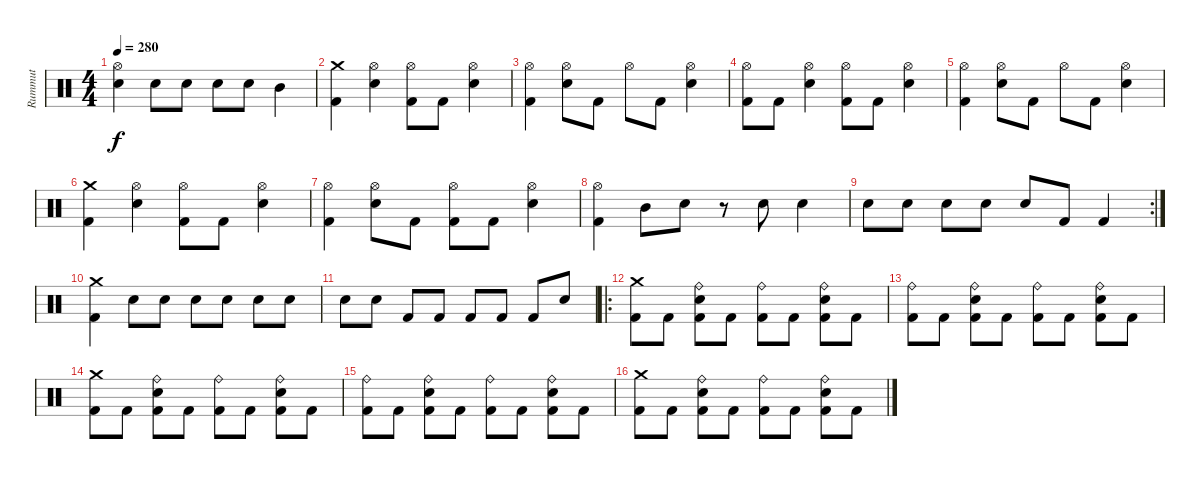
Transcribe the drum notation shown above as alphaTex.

\track ("Rummut" "Rummut") {instrument percussion}
\staff {score}
\articulation defaults
\ts (4 4)
\tempo 280
\clef neutral
\ks c
("Hi-Hat (open)" "Snare (hit) 2").4{dy f} "Snare (hit) 2".8 "Snare (hit) 2".8 "Snare (hit) 2".8 "Snare (hit) 2".8 "Mid Tom (hit)".4 |
("Crash medium (hit)" "Kick (hit) 2").4 ("Hi-Hat (open)" "Snare (hit) 2").4 ("Hi-Hat (open)" "Kick (hit) 2").8 "Kick (hit) 2".8 ("Hi-Hat (open)" "Snare (hit) 2").4 |
("Hi-Hat (open)" "Kick (hit) 2").4 ("Hi-Hat (open)" "Snare (hit) 2").8 "Kick (hit) 2".8 "Hi-Hat (open)".8 "Kick (hit) 2".8 ("Hi-Hat (open)" "Snare (hit) 2").4 |
("Hi-Hat (open)" "Kick (hit) 2").8 "Kick (hit) 2".8 ("Hi-Hat (open)" "Snare (hit) 2").4 ("Hi-Hat (open)" "Kick (hit) 2").8 "Kick (hit) 2".8 ("Hi-Hat (open)" "Snare (hit) 2").4 |
("Hi-Hat (open)" "Kick (hit) 2").4 ("Hi-Hat (open)" "Snare (hit) 2").8 "Kick (hit) 2".8 "Hi-Hat (open)".8 "Kick (hit) 2".8 ("Hi-Hat (open)" "Snare (hit) 2").4 |
("Crash medium (hit)" "Kick (hit) 2").4 ("Hi-Hat (open)" "Snare (hit) 2").4 ("Hi-Hat (open)" "Kick (hit) 2").8 "Kick (hit) 2".8 ("Hi-Hat (open)" "Snare (hit) 2").4 |
("Hi-Hat (open)" "Kick (hit) 2").4 ("Hi-Hat (open)" "Snare (hit) 2").8 "Kick (hit) 2".8 ("Hi-Hat (open)" "Kick (hit) 2").8 "Kick (hit) 2".8 ("Hi-Hat (open)" "Snare (hit) 2").4 |
("Hi-Hat (open)" "Kick (hit) 2").4 "Mid Tom (hit)".8 "Snare (hit) 2".8 r.8 "Snare (hit) 2".8 "Snare (hit) 2".4 |
\rc 2 "Snare (hit) 2".8 "Snare (hit) 2".8 "Snare (hit) 2".8 "Snare (hit) 2".8 "Snare (hit) 2".8 "Kick (hit) 2".8 "Kick (hit) 2".4
|
("Crash medium (hit)" "Kick (hit) 2").4 "Snare (hit) 2".8 "Snare (hit) 2".8 "Snare (hit) 2".8 "Snare (hit) 2".8 "Snare (hit) 2".8 "Snare (hit) 2".8 |
"Snare (hit) 2".8 "Snare (hit) 2".8 "Kick (hit) 2".8 "Kick (hit) 2".8 "Kick (hit) 2".8 "Kick (hit) 2".8 "Kick (hit) 2".8 "Snare (hit) 2".8 |
\ro
("Crash medium (hit)" "Kick (hit) 2").8 "Kick (hit) 2".8 ("Ride (bell)" "Snare (hit) 2" "Kick (hit) 2").8 "Kick (hit) 2".8 ("Ride (bell)" "Kick (hit) 2").8 "Kick (hit) 2".8 ("Ride (bell)" "Snare (hit) 2" "Kick (hit) 2").8 "Kick (hit) 2".8 |
("Ride (bell)" "Kick (hit) 2").8 "Kick (hit) 2".8 ("Ride (bell)" "Snare (hit) 2" "Kick (hit) 2").8 "Kick (hit) 2".8 ("Ride (bell)" "Kick (hit) 2").8 "Kick (hit) 2".8 ("Ride (bell)" "Snare (hit) 2" "Kick (hit) 2").8 "Kick (hit) 2".8 |
("Crash medium (hit)" "Kick (hit) 2").8 "Kick (hit) 2".8 ("Ride (bell)" "Snare (hit) 2" "Kick (hit) 2").8 "Kick (hit) 2".8 ("Ride (bell)" "Kick (hit) 2").8 "Kick (hit) 2".8 ("Ride (bell)" "Snare (hit) 2" "Kick (hit) 2").8 "Kick (hit) 2".8 |
("Ride (bell)" "Kick (hit) 2").8 "Kick (hit) 2".8 ("Ride (bell)" "Snare (hit) 2" "Kick (hit) 2").8 "Kick (hit) 2".8 ("Ride (bell)" "Kick (hit) 2").8 "Kick (hit) 2".8 ("Ride (bell)" "Snare (hit) 2" "Kick (hit) 2").8 "Kick (hit) 2".8 |
("Crash medium (hit)" "Kick (hit) 2").8 "Kick (hit) 2".8 ("Ride (bell)" "Snare (hit) 2" "Kick (hit) 2").8 "Kick (hit) 2".8 ("Ride (bell)" "Kick (hit) 2").8 "Kick (hit) 2".8 ("Ride (bell)" "Snare (hit) 2" "Kick (hit) 2").8 "Kick (hit) 2".8
